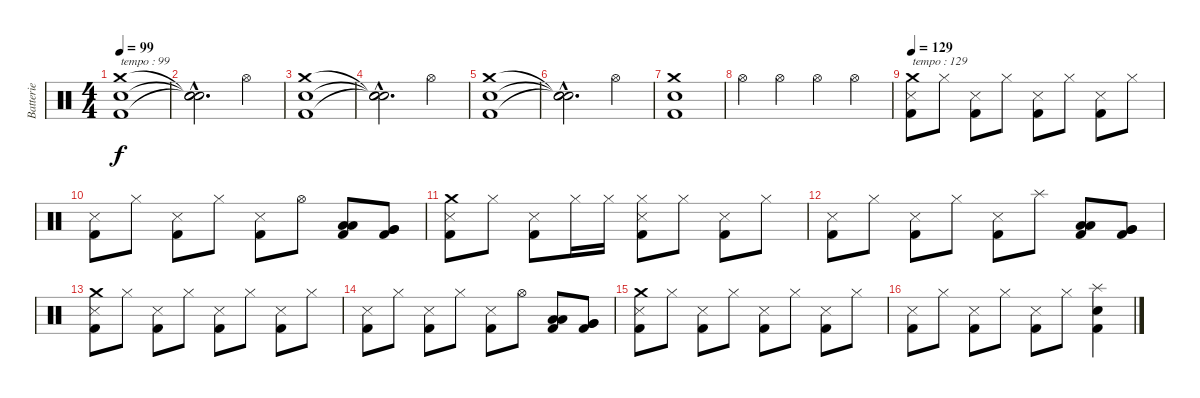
\track ("Batterie" "Batterie") {instrument percussion}
\staff {score}
\articulation defaults
\ts (4 4)
\tempo 99
\clef neutral
\ks c
("Crash medium (hit)" "Electric Snare (hit)" "Kick (hit) 2").1{txt "tempo : 99" dy f} |
("Snare (hit)"{hac t} "Snare (hit)"{hac t} "Snare (hit)"{hac t}).2{d} "Hi-Hat (open)".4 |
("Crash medium (hit)" "Electric Snare (hit)" "Kick (hit) 2").1 |
("Snare (hit)"{hac t} "Snare (hit)"{hac t} "Snare (hit)"{hac t}).2{d} "Hi-Hat (open)".4 |
("Crash medium (hit)" "Electric Snare (hit)" "Kick (hit) 2").1 |
("Snare (hit)"{hac t} "Snare (hit)"{hac t} "Snare (hit)"{hac t}).2{d} "Hi-Hat (open)".4 |
("Crash medium (hit)" "Electric Snare (hit)" "Kick (hit) 2").1 |
"Hi-Hat (open)".4 "Hi-Hat (open)".4 "Hi-Hat (open)".4 "Hi-Hat (open)".4 |
\tempo 129
("Crash medium (hit)" "Snare (side stick) 3" "Kick (hit) 2").8{txt "tempo : 129"} "Hi-Hat (closed)".8 ("Snare (side stick) 3" "Kick (hit) 2").8 "Hi-Hat (closed)".8 ("Snare (side stick) 3" "Kick (hit) 2").8 "Hi-Hat (closed)".8 ("Snare (side stick) 3" "Kick (hit) 2").8 "Hi-Hat (closed)".8 |
("Snare (side stick) 3" "Kick (hit) 2").8 "Hi-Hat (closed)".8 ("Snare (side stick) 3" "Kick (hit) 2").8 "Hi-Hat (closed)".8 ("Snare (side stick) 3" "Kick (hit) 2").8 "Hi-Hat (open)".8 ("Low Tom (hit)" "Low Tom (hit)" "Kick (hit) 2").8 ("Very Low Tom (hit)" "Very Low Tom (hit)" "Kick (hit) 2").8 |
("Crash medium (hit)" "Snare (side stick) 3" "Kick (hit) 2").8 "Hi-Hat (closed)".8 ("Snare (side stick) 3" "Kick (hit) 2").8 "Hi-Hat (closed)".16 "Hi-Hat (closed)".16 ("Hi-Hat (closed)" "Snare (side stick) 3" "Kick (hit) 2").8 "Hi-Hat (closed)".8 ("Snare (side stick) 3" "Kick (hit) 2").8 "Hi-Hat (closed)".8 |
("Snare (side stick) 3" "Kick (hit) 2").8 "Hi-Hat (closed)".8 ("Snare (side stick) 3" "Kick (hit) 2").8 "Hi-Hat (closed)".8 ("Snare (side stick) 3" "Kick (hit) 2").8 "Splash (hit)".8 ("Low Tom (hit)" "Low Tom (hit)" "Kick (hit) 2").8 ("Very Low Tom (hit)" "Very Low Tom (hit)" "Kick (hit) 2").8 |
("Crash medium (hit)" "Snare (side stick) 3" "Kick (hit) 2").8 "Hi-Hat (closed)".8 ("Snare (side stick) 3" "Kick (hit) 2").8 "Hi-Hat (closed)".8 ("Snare (side stick) 3" "Kick (hit) 2").8 "Hi-Hat (closed)".8 ("Snare (side stick) 3" "Kick (hit) 2").8 "Hi-Hat (closed)".8 |
("Snare (side stick) 3" "Kick (hit) 2").8 "Hi-Hat (closed)".8 ("Snare (side stick) 3" "Kick (hit) 2").8 "Hi-Hat (closed)".8 ("Snare (side stick) 3" "Kick (hit) 2").8 "Hi-Hat (open)".8 ("Low Tom (hit)" "Low Tom (hit)" "Kick (hit) 2").8 ("Very Low Tom (hit)" "Very Low Tom (hit)" "Kick (hit) 2").8 |
("Crash medium (hit)" "Snare (side stick) 3" "Kick (hit) 2").8 "Hi-Hat (closed)".8 ("Snare (side stick) 3" "Kick (hit) 2").8 "Hi-Hat (closed)".8 ("Snare (side stick) 3" "Kick (hit) 2").8 "Hi-Hat (closed)".8 ("Snare (side stick) 3" "Kick (hit) 2").8 "Hi-Hat (closed)".8 |
("Snare (side stick) 3" "Kick (hit) 2").8 "Hi-Hat (closed)".8 ("Snare (side stick) 3" "Kick (hit) 2").8 "Hi-Hat (closed)".8 ("Snare (side stick) 3" "Kick (hit) 2").8 "Hi-Hat (closed)".8 ("Splash (hit)" "Electric Snare (hit)" "Kick (hit) 2").4
